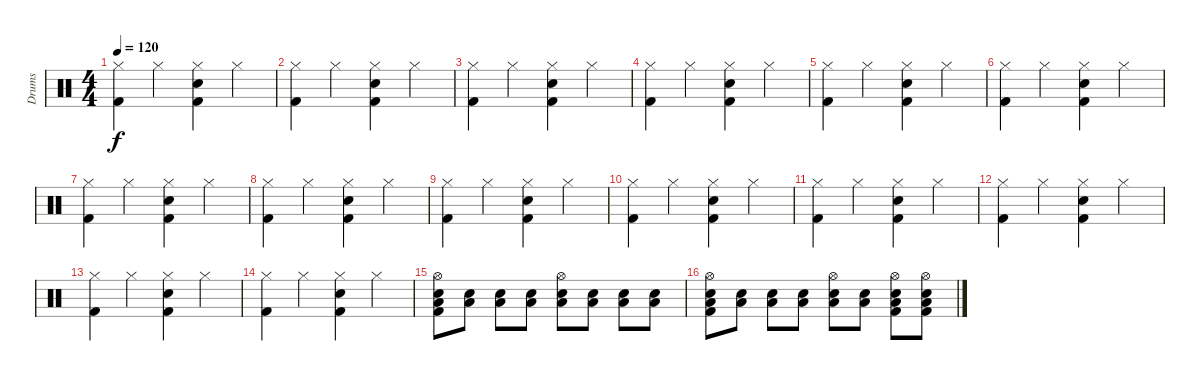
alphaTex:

\track ("Drums" "Drums") {instrument percussion}
\staff {score}
\articulation defaults
\ts (4 4)
\tempo 120
\clef neutral
\ks c
("Hi-Hat (closed)" "Kick (hit) 2").4{dy f} "Hi-Hat (closed)".4 ("Hi-Hat (closed)" "Electric Snare (hit)" "Kick (hit) 2").4 "Hi-Hat (closed)".4 |
("Hi-Hat (closed)" "Kick (hit) 2").4 "Hi-Hat (closed)".4 ("Hi-Hat (closed)" "Electric Snare (hit)" "Kick (hit) 2").4 "Hi-Hat (closed)".4 |
("Hi-Hat (closed)" "Kick (hit) 2").4 "Hi-Hat (closed)".4 ("Hi-Hat (closed)" "Electric Snare (hit)" "Kick (hit) 2").4 "Hi-Hat (closed)".4 |
("Hi-Hat (closed)" "Kick (hit) 2").4 "Hi-Hat (closed)".4 ("Hi-Hat (closed)" "Electric Snare (hit)" "Kick (hit) 2").4 "Hi-Hat (closed)".4 |
("Hi-Hat (closed)" "Kick (hit) 2").4 "Hi-Hat (closed)".4 ("Hi-Hat (closed)" "Electric Snare (hit)" "Kick (hit) 2").4 "Hi-Hat (closed)".4 |
("Hi-Hat (closed)" "Kick (hit) 2").4 "Hi-Hat (closed)".4 ("Hi-Hat (closed)" "Electric Snare (hit)" "Kick (hit) 2").4 "Hi-Hat (closed)".4 |
("Hi-Hat (closed)" "Kick (hit) 2").4 "Hi-Hat (closed)".4 ("Hi-Hat (closed)" "Electric Snare (hit)" "Kick (hit) 2").4 "Hi-Hat (closed)".4 |
("Hi-Hat (closed)" "Kick (hit) 2").4 "Hi-Hat (closed)".4 ("Hi-Hat (closed)" "Electric Snare (hit)" "Kick (hit) 2").4 "Hi-Hat (closed)".4 |
("Hi-Hat (closed)" "Kick (hit) 2").4 "Hi-Hat (closed)".4 ("Hi-Hat (closed)" "Electric Snare (hit)" "Kick (hit) 2").4 "Hi-Hat (closed)".4 |
("Hi-Hat (closed)" "Kick (hit) 2").4 "Hi-Hat (closed)".4 ("Hi-Hat (closed)" "Electric Snare (hit)" "Kick (hit) 2").4 "Hi-Hat (closed)".4 |
("Hi-Hat (closed)" "Kick (hit) 2").4 "Hi-Hat (closed)".4 ("Hi-Hat (closed)" "Electric Snare (hit)" "Kick (hit) 2").4 "Hi-Hat (closed)".4 |
("Hi-Hat (closed)" "Kick (hit) 2").4 "Hi-Hat (closed)".4 ("Hi-Hat (closed)" "Electric Snare (hit)" "Kick (hit) 2").4 "Hi-Hat (closed)".4 |
("Hi-Hat (closed)" "Kick (hit) 2").4 "Hi-Hat (closed)".4 ("Hi-Hat (closed)" "Electric Snare (hit)" "Kick (hit) 2").4 "Hi-Hat (closed)".4 |
("Hi-Hat (closed)" "Kick (hit) 2").4 "Hi-Hat (closed)".4 ("Hi-Hat (closed)" "Electric Snare (hit)" "Kick (hit) 2").4 "Hi-Hat (closed)".4 |
("Low Tom (hit)" "Electric Snare (hit)" "Hi-Hat (open)" "Kick (hit) 2").8{volume 9} ("Low Tom (hit)" "Electric Snare (hit)").8{volume 13} ("Low Tom (hit)" "Electric Snare (hit)").8 ("Low Tom (hit)" "Electric Snare (hit)").8 ("Low Tom (hit)" "Electric Snare (hit)" "Hi-Hat (open)").8 ("Low Tom (hit)" "Electric Snare (hit)").8 ("Low Tom (hit)" "Electric Snare (hit)").8 ("Low Tom (hit)" "Electric Snare (hit)").8 |
("Low Tom (hit)" "Electric Snare (hit)" "Hi-Hat (open)" "Kick (hit) 2").8 ("Low Tom (hit)" "Electric Snare (hit)").8 ("Low Tom (hit)" "Electric Snare (hit)").8 ("Low Tom (hit)" "Electric Snare (hit)").8 ("Low Tom (hit)" "Electric Snare (hit)" "Hi-Hat (open)").8 ("Low Tom (hit)" "Electric Snare (hit)").8 ("Low Tom (hit)" "Electric Snare (hit)" "Hi-Hat (open)" "Kick (hit) 2").8 ("Low Tom (hit)" "Electric Snare (hit)" "Hi-Hat (open)" "Kick (hit) 2").8
